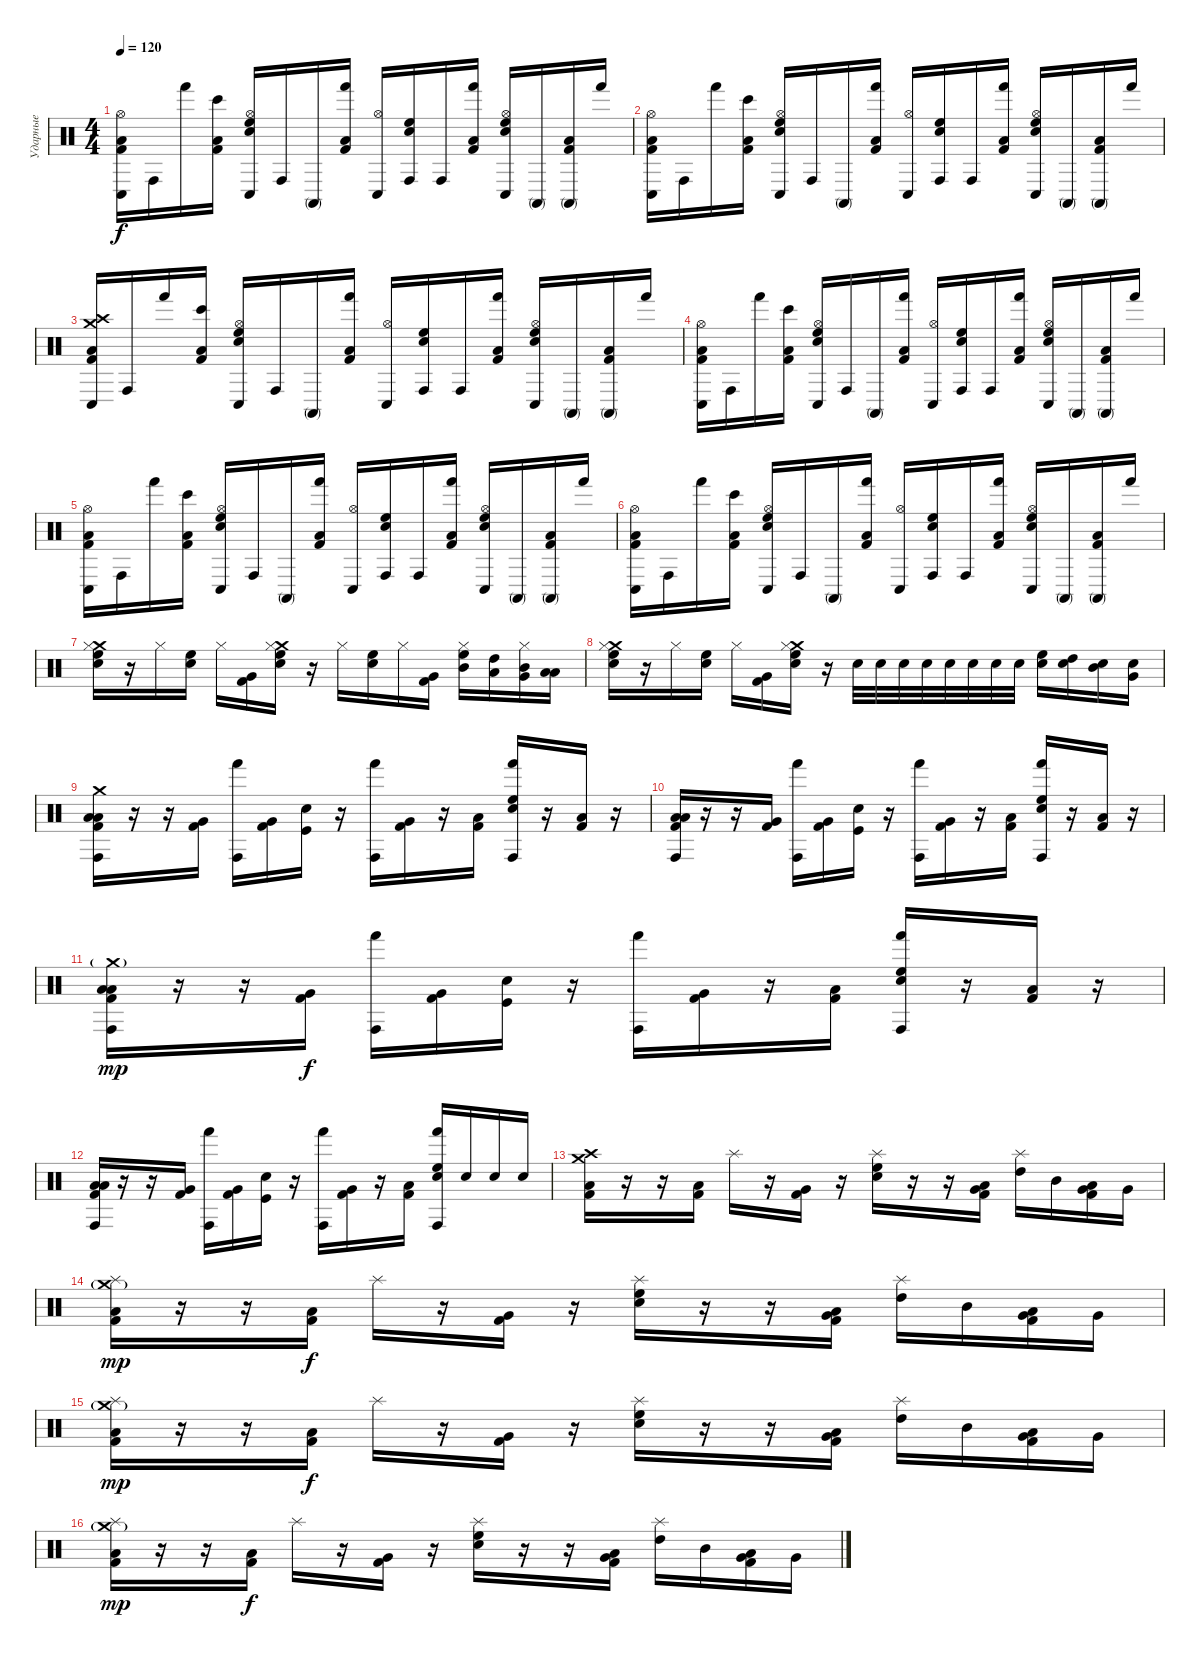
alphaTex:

\track ("Ударные" "Ударные") {instrument percussion}
\staff
\articulation defaults
\ts (4 4)
\tempo 120
\clef neutral
\ks c
("Hi-Hat (open)" "Conga low (hit)" "Low Floor Tom (hit)" "Kick (hit) 2").16{dy f} "Conga high (hit)".16 "Hand (hit)".16 ("Bongo High (hit)" "Low Floor Tom (hit)" "Kick (hit) 2").16 ("Hi-Hat (open)" "Conga low (hit)" "High Floor Tom (hit)" "Electric Snare (hit)").16 "Conga high (hit)".16 "Conga high (mute)".16 ("Hand (hit)" "Low Floor Tom (hit)" "Kick (hit) 2").16 ("Hi-Hat (open)" "Conga low (hit)").16 ("Conga high (hit)" "High Floor Tom (hit)" "Electric Snare (hit)").16 "Conga high (hit)".16 ("Hand (hit)" "Low Floor Tom (hit)" "Kick (hit) 2").16 ("Hi-Hat (open)" "Conga low (hit)" "High Floor Tom (hit)" "Electric Snare (hit)").16 "Conga high (mute)".16 ("Conga high (mute)" "Low Tom (hit)" "Kick (hit) 2").16 "Hand (hit)".16 |
("Hi-Hat (open)" "Conga low (hit)" "Low Floor Tom (hit)" "Kick (hit) 2").16 "Conga high (hit)".16 "Hand (hit)".16 ("Bongo High (hit)" "Low Floor Tom (hit)" "Kick (hit) 2").16 ("Hi-Hat (open)" "Conga low (hit)" "High Floor Tom (hit)" "Electric Snare (hit)").16 "Conga high (hit)".16 "Conga high (mute)".16 ("Hand (hit)" "Low Floor Tom (hit)" "Kick (hit) 2").16 ("Hi-Hat (open)" "Conga low (hit)").16 ("Conga high (hit)" "High Floor Tom (hit)" "Electric Snare (hit)").16 "Conga high (hit)".16 ("Hand (hit)" "Low Floor Tom (hit)" "Kick (hit) 2").16 ("Hi-Hat (open)" "Conga low (hit)" "High Floor Tom (hit)" "Electric Snare (hit)").16 "Conga high (mute)".16 ("Conga high (mute)" "Low Tom (hit)" "Kick (hit) 2").16 "Hand (hit)".16 |
("Crash medium (hit)" "Crash high (hit)" "Conga low (hit)" "Low Floor Tom (hit)" "Kick (hit) 2").16 "Conga high (hit)".16 "Hand (hit)".16 ("Bongo High (hit)" "Low Floor Tom (hit)" "Kick (hit) 2").16 ("Hi-Hat (open)" "Conga low (hit)" "High Floor Tom (hit)" "Electric Snare (hit)").16 "Conga high (hit)".16 "Conga high (mute)".16 ("Hand (hit)" "Low Floor Tom (hit)" "Kick (hit) 2").16 ("Hi-Hat (open)" "Conga low (hit)").16 ("Conga high (hit)" "High Floor Tom (hit)" "Electric Snare (hit)").16 "Conga high (hit)".16 ("Hand (hit)" "Low Floor Tom (hit)" "Kick (hit) 2").16 ("Hi-Hat (open)" "Conga low (hit)" "High Floor Tom (hit)" "Electric Snare (hit)").16 "Conga high (mute)".16 ("Conga high (mute)" "Low Tom (hit)" "Kick (hit) 2").16 "Hand (hit)".16 |
("Hi-Hat (open)" "Conga low (hit)" "Low Floor Tom (hit)" "Kick (hit) 2").16 "Conga high (hit)".16 "Hand (hit)".16 ("Bongo High (hit)" "Low Floor Tom (hit)" "Kick (hit) 2").16 ("Hi-Hat (open)" "Conga low (hit)" "High Floor Tom (hit)" "Electric Snare (hit)").16 "Conga high (hit)".16 "Conga high (mute)".16 ("Hand (hit)" "Low Floor Tom (hit)" "Kick (hit) 2").16 ("Hi-Hat (open)" "Conga low (hit)").16 ("Conga high (hit)" "High Floor Tom (hit)" "Electric Snare (hit)").16 "Conga high (hit)".16 ("Hand (hit)" "Low Floor Tom (hit)" "Kick (hit) 2").16 ("Hi-Hat (open)" "Conga low (hit)" "High Floor Tom (hit)" "Electric Snare (hit)").16 "Conga high (mute)".16 ("Conga high (mute)" "Low Tom (hit)" "Kick (hit) 2").16 "Hand (hit)".16 |
("Hi-Hat (open)" "Conga low (hit)" "Low Floor Tom (hit)" "Kick (hit) 2").16 "Conga high (hit)".16 "Hand (hit)".16 ("Bongo High (hit)" "Low Floor Tom (hit)" "Kick (hit) 2").16 ("Hi-Hat (open)" "Conga low (hit)" "High Floor Tom (hit)" "Electric Snare (hit)").16 "Conga high (hit)".16 "Conga high (mute)".16 ("Hand (hit)" "Low Floor Tom (hit)" "Kick (hit) 2").16 ("Hi-Hat (open)" "Conga low (hit)").16 ("Conga high (hit)" "High Floor Tom (hit)" "Electric Snare (hit)").16 "Conga high (hit)".16 ("Hand (hit)" "Low Floor Tom (hit)" "Kick (hit) 2").16 ("Hi-Hat (open)" "Conga low (hit)" "High Floor Tom (hit)" "Electric Snare (hit)").16 "Conga high (mute)".16 ("Conga high (mute)" "Low Tom (hit)" "Kick (hit) 2").16 "Hand (hit)".16 |
("Hi-Hat (open)" "Conga low (hit)" "Low Floor Tom (hit)" "Kick (hit) 2").16 "Conga high (hit)".16 "Hand (hit)".16 ("Bongo High (hit)" "Low Floor Tom (hit)" "Kick (hit) 2").16 ("Hi-Hat (open)" "Conga low (hit)" "High Floor Tom (hit)" "Electric Snare (hit)").16 "Conga high (hit)".16 "Conga high (mute)".16 ("Hand (hit)" "Low Floor Tom (hit)" "Kick (hit) 2").16 ("Hi-Hat (open)" "Conga low (hit)").16 ("Conga high (hit)" "High Floor Tom (hit)" "Electric Snare (hit)").16 "Conga high (hit)".16 ("Hand (hit)" "Low Floor Tom (hit)" "Kick (hit) 2").16 ("Hi-Hat (open)" "Conga low (hit)" "High Floor Tom (hit)" "Electric Snare (hit)").16 "Conga high (mute)".16 ("Conga high (mute)" "Low Tom (hit)" "Kick (hit) 2").16 "Hand (hit)".16 |
("Crash medium (hit)" "Hi-Hat (closed)" "High Floor Tom (hit)" "Electric Snare (hit)").16 r.16 "Hi-Hat (closed)".16 ("High Floor Tom (hit)" "Electric Snare (hit)").16 "Hi-Hat (closed)".16 ("Very Low Tom (hit)" "Kick (hit) 2").16 ("Crash medium (hit)" "Hi-Hat (closed)" "High Floor Tom (hit)" "Electric Snare (hit)").16 r.16 "Hi-Hat (closed)".16 ("High Floor Tom (hit)" "Electric Snare (hit)").16 "Hi-Hat (closed)".16 ("Very Low Tom (hit)" "Kick (hit) 2").16 ("Hi-Hat (closed)" "High Floor Tom (hit)" "Mid Tom (hit)").16{bd 60} ("High Tom (hit)" "Low Tom (hit)").16{bu 60} ("Hi-Hat (closed)" "Mid Tom (hit)" "Very Low Tom (hit)").16{bu 60} ("Low Tom (hit)" "Low Floor Tom (hit)").16{bd 60} |
("Crash medium (hit)" "Hi-Hat (closed)" "High Floor Tom (hit)" "Electric Snare (hit)").16 r.16 "Hi-Hat (closed)".16 ("High Floor Tom (hit)" "Electric Snare (hit)").16 "Hi-Hat (closed)".16 ("Very Low Tom (hit)" "Kick (hit) 2").16 ("Crash medium (hit)" "Hi-Hat (closed)" "High Floor Tom (hit)" "Electric Snare (hit)").16 r.16 "Electric Snare (hit)".32 "Electric Snare (hit)".32 "Electric Snare (hit)".32 "Electric Snare (hit)".32 "Electric Snare (hit)".32 "Electric Snare (hit)".32 "Electric Snare (hit)".32 "Electric Snare (hit)".32 ("High Floor Tom (hit)" "Electric Snare (hit)").16 ("High Tom (hit)" "Electric Snare (hit)").16 ("Mid Tom (hit)" "Electric Snare (hit)").16 ("Very Low Tom (hit)" "Electric Snare (hit)").16 |
("Crash medium (hit)" "Conga high (hit)" "Low Floor Tom (hit)" "Low Tom (hit)" "Kick (hit) 2").16 r.16 r.16 ("Very Low Tom (hit)" "Kick (hit) 2").16 ("Conga high (hit)" "Hand (hit)").16 ("Very Low Tom (hit)" "Kick (hit) 2").16 ("Kick (hit)" "Electric Snare (hit)").16 r.16 ("Conga high (hit)" "Hand (hit)").16 ("Very Low Tom (hit)" "Kick (hit) 2").16 r.16 ("Low Tom (hit)" "Kick (hit) 2").16 ("Conga high (hit)" "Hand (hit)" "High Floor Tom (hit)" "Electric Snare (hit)").16 r.16 ("Low Tom (hit)" "Kick (hit) 2").16 r.16 |
("Conga high (hit)" "Low Floor Tom (hit)" "Low Tom (hit)" "Kick (hit) 2").16 r.16 r.16 ("Very Low Tom (hit)" "Kick (hit) 2").16 ("Conga high (hit)" "Hand (hit)").16 ("Very Low Tom (hit)" "Kick (hit) 2").16 ("Kick (hit)" "Electric Snare (hit)").16 r.16 ("Conga high (hit)" "Hand (hit)").16 ("Very Low Tom (hit)" "Kick (hit) 2").16 r.16 ("Low Tom (hit)" "Kick (hit) 2").16 ("Conga high (hit)" "Hand (hit)" "High Floor Tom (hit)" "Electric Snare (hit)").16 r.16 ("Low Tom (hit)" "Kick (hit) 2").16 r.16 |
("Crash medium (hit)"{g} "Conga high (hit)" "Low Floor Tom (hit)" "Low Tom (hit)" "Kick (hit) 2").16{dy mp} r.16 r.16 ("Very Low Tom (hit)" "Kick (hit) 2").16{dy f} ("Conga high (hit)" "Hand (hit)").16 ("Very Low Tom (hit)" "Kick (hit) 2").16 ("Kick (hit)" "Electric Snare (hit)").16 r.16 ("Conga high (hit)" "Hand (hit)").16 ("Very Low Tom (hit)" "Kick (hit) 2").16 r.16 ("Low Tom (hit)" "Kick (hit) 2").16 ("Conga high (hit)" "Hand (hit)" "High Floor Tom (hit)" "Electric Snare (hit)").16 r.16 ("Low Tom (hit)" "Kick (hit) 2").16 r.16 |
("Conga high (hit)" "Low Floor Tom (hit)" "Low Tom (hit)" "Kick (hit) 2").16 r.16 r.16 ("Very Low Tom (hit)" "Kick (hit) 2").16 ("Conga high (hit)" "Hand (hit)").16 ("Very Low Tom (hit)" "Kick (hit) 2").16 ("Kick (hit)" "Electric Snare (hit)").16 r.16 ("Conga high (hit)" "Hand (hit)").16 ("Very Low Tom (hit)" "Kick (hit) 2").16 r.16 ("Low Tom (hit)" "Kick (hit) 2").16 ("Conga high (hit)" "Hand (hit)" "High Floor Tom (hit)" "Electric Snare (hit)").16 "Electric Snare (hit)".16 "Electric Snare (hit)".16 "Electric Snare (hit)".16 |
("Crash medium (hit)" "Crash high (hit)" "Low Tom (hit)" "Kick (hit) 2").16 r.16 r.16 ("Low Tom (hit)" "Kick (hit) 2").16 "Splash (hit)".16 r.16 ("Very Low Tom (hit)" "Kick (hit) 2").16 r.16 ("Splash (hit)" "High Floor Tom (hit)" "Electric Snare (hit)").16 r.16 r.16 ("Very Low Tom (hit)" "Low Tom (hit)" "Kick (hit) 2").16 ("Splash (hit)" "High Tom (hit)").16 "Mid Tom (hit)".16 ("Low Tom (hit)" "Very Low Tom (hit)" "Kick (hit) 2").16 "Very Low Tom (hit)".16 |
("Crash medium (hit)"{g} "Splash (hit)" "Low Tom (hit)" "Kick (hit) 2").16{dy mp} r.16 r.16 ("Low Tom (hit)" "Kick (hit) 2").16{dy f} "Splash (hit)".16 r.16 ("Very Low Tom (hit)" "Kick (hit) 2").16 r.16 ("Splash (hit)" "High Floor Tom (hit)" "Electric Snare (hit)").16 r.16 r.16 ("Very Low Tom (hit)" "Low Tom (hit)" "Kick (hit) 2").16 ("Splash (hit)" "High Tom (hit)").16 "Mid Tom (hit)".16 ("Low Tom (hit)" "Very Low Tom (hit)" "Kick (hit) 2").16 "Very Low Tom (hit)".16 |
("Crash medium (hit)"{g} "Splash (hit)" "Low Tom (hit)" "Kick (hit) 2").16{dy mp} r.16 r.16 ("Low Tom (hit)" "Kick (hit) 2").16{dy f} "Splash (hit)".16 r.16 ("Very Low Tom (hit)" "Kick (hit) 2").16 r.16 ("Splash (hit)" "High Floor Tom (hit)" "Electric Snare (hit)").16 r.16 r.16 ("Very Low Tom (hit)" "Low Tom (hit)" "Kick (hit) 2").16 ("Splash (hit)" "High Tom (hit)").16 "Mid Tom (hit)".16 ("Low Tom (hit)" "Very Low Tom (hit)" "Kick (hit) 2").16 "Very Low Tom (hit)".16 |
("Crash medium (hit)"{g} "Splash (hit)" "Low Tom (hit)" "Kick (hit) 2").16{dy mp} r.16 r.16 ("Low Tom (hit)" "Kick (hit) 2").16{dy f} "Splash (hit)".16 r.16 ("Very Low Tom (hit)" "Kick (hit) 2").16 r.16 ("Splash (hit)" "High Floor Tom (hit)" "Electric Snare (hit)").16 r.16 r.16 ("Very Low Tom (hit)" "Low Tom (hit)" "Kick (hit) 2").16 ("Splash (hit)" "High Tom (hit)").16 "Mid Tom (hit)".16 ("Low Tom (hit)" "Very Low Tom (hit)" "Kick (hit) 2").16 "Very Low Tom (hit)".16
